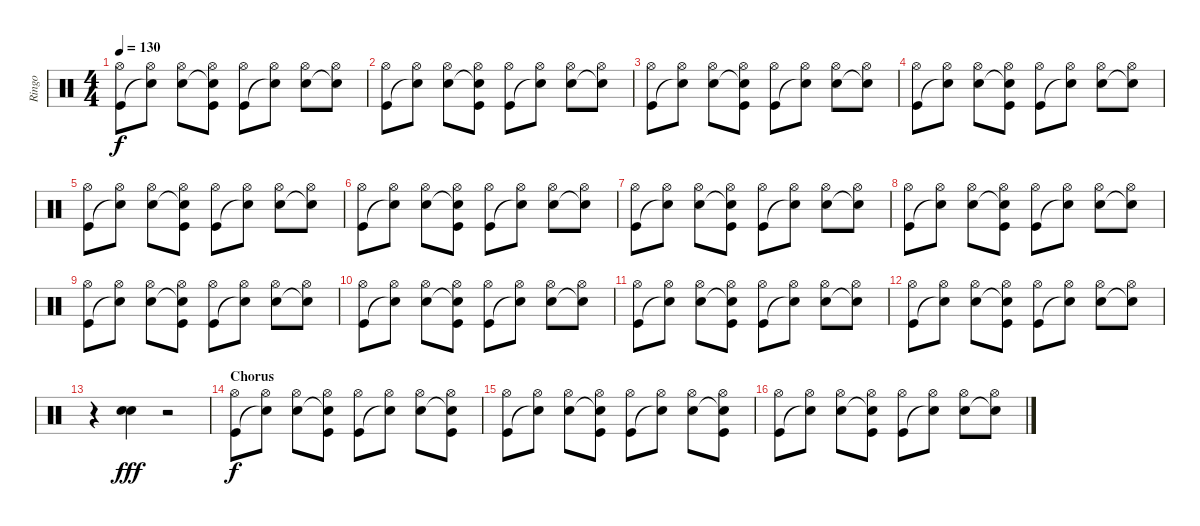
\track ("Ringo" "Ringo") {instrument percussion}
\staff {score}
\articulation defaults
\ts (4 4)
\tempo 130
\clef neutral
\ks c
("Hi-Hat (open)" "Kick (hit)").8{dy f} ("Hi-Hat (open)" "Snare (hit)"{t}).8 ("Hi-Hat (open)" "Snare (hit) 2").8 ("Hi-Hat (open)" "Snare (hit)"{t} "Kick (hit)").8 ("Hi-Hat (open)" "Kick (hit)").8 ("Hi-Hat (open)" "Snare (hit)"{t}).8 ("Hi-Hat (open)" "Snare (hit) 2").8 ("Hi-Hat (open)" "Snare (hit)"{t}).8 |
("Hi-Hat (open)" "Kick (hit)").8 ("Hi-Hat (open)" "Snare (hit)"{t}).8 ("Hi-Hat (open)" "Snare (hit) 2").8 ("Hi-Hat (open)" "Snare (hit)"{t} "Kick (hit)").8 ("Hi-Hat (open)" "Kick (hit)").8 ("Hi-Hat (open)" "Snare (hit)"{t}).8 ("Hi-Hat (open)" "Snare (hit) 2").8 ("Hi-Hat (open)" "Snare (hit)"{t}).8 |
("Hi-Hat (open)" "Kick (hit)").8 ("Hi-Hat (open)" "Snare (hit)"{t}).8 ("Hi-Hat (open)" "Snare (hit) 2").8 ("Hi-Hat (open)" "Snare (hit)"{t} "Kick (hit)").8 ("Hi-Hat (open)" "Kick (hit)").8 ("Hi-Hat (open)" "Snare (hit)"{t}).8 ("Hi-Hat (open)" "Snare (hit) 2").8 ("Hi-Hat (open)" "Snare (hit)"{t}).8 |
("Hi-Hat (open)" "Kick (hit)").8 ("Hi-Hat (open)" "Snare (hit)"{t}).8 ("Hi-Hat (open)" "Snare (hit) 2").8 ("Hi-Hat (open)" "Snare (hit)"{t} "Kick (hit)").8 ("Hi-Hat (open)" "Kick (hit)").8 ("Hi-Hat (open)" "Snare (hit)"{t}).8 ("Hi-Hat (open)" "Snare (hit) 2").8 ("Hi-Hat (open)" "Snare (hit)"{t}).8 |
("Hi-Hat (open)" "Kick (hit)").8 ("Hi-Hat (open)" "Snare (hit)"{t}).8 ("Hi-Hat (open)" "Snare (hit) 2").8 ("Hi-Hat (open)" "Snare (hit)"{t} "Kick (hit)").8 ("Hi-Hat (open)" "Kick (hit)").8 ("Hi-Hat (open)" "Snare (hit)"{t}).8 ("Hi-Hat (open)" "Snare (hit) 2").8 ("Hi-Hat (open)" "Snare (hit)"{t}).8 |
("Hi-Hat (open)" "Kick (hit)").8 ("Hi-Hat (open)" "Snare (hit)"{t}).8 ("Hi-Hat (open)" "Snare (hit) 2").8 ("Hi-Hat (open)" "Snare (hit)"{t} "Kick (hit)").8 ("Hi-Hat (open)" "Kick (hit)").8 ("Hi-Hat (open)" "Snare (hit)"{t}).8 ("Hi-Hat (open)" "Snare (hit) 2").8 ("Hi-Hat (open)" "Snare (hit)"{t}).8 |
("Hi-Hat (open)" "Kick (hit)").8 ("Hi-Hat (open)" "Snare (hit)"{t}).8 ("Hi-Hat (open)" "Snare (hit) 2").8 ("Hi-Hat (open)" "Snare (hit)"{t} "Kick (hit)").8 ("Hi-Hat (open)" "Kick (hit)").8 ("Hi-Hat (open)" "Snare (hit)"{t}).8 ("Hi-Hat (open)" "Snare (hit) 2").8 ("Hi-Hat (open)" "Snare (hit)"{t}).8 |
("Hi-Hat (open)" "Kick (hit)").8 ("Hi-Hat (open)" "Snare (hit)"{t}).8 ("Hi-Hat (open)" "Snare (hit) 2").8 ("Hi-Hat (open)" "Snare (hit)"{t} "Kick (hit)").8 ("Hi-Hat (open)" "Kick (hit)").8 ("Hi-Hat (open)" "Snare (hit)"{t}).8 ("Hi-Hat (open)" "Snare (hit) 2").8 ("Hi-Hat (open)" "Snare (hit)"{t}).8 |
("Hi-Hat (open)" "Kick (hit)").8 ("Hi-Hat (open)" "Snare (hit)"{t}).8 ("Hi-Hat (open)" "Snare (hit) 2").8 ("Hi-Hat (open)" "Snare (hit)"{t} "Kick (hit)").8 ("Hi-Hat (open)" "Kick (hit)").8 ("Hi-Hat (open)" "Snare (hit)"{t}).8 ("Hi-Hat (open)" "Snare (hit) 2").8 ("Hi-Hat (open)" "Snare (hit)"{t}).8 |
("Hi-Hat (open)" "Kick (hit)").8 ("Hi-Hat (open)" "Snare (hit)"{t}).8 ("Hi-Hat (open)" "Snare (hit) 2").8 ("Hi-Hat (open)" "Snare (hit)"{t} "Kick (hit)").8 ("Hi-Hat (open)" "Kick (hit)").8 ("Hi-Hat (open)" "Snare (hit)"{t}).8 ("Hi-Hat (open)" "Snare (hit) 2").8 ("Hi-Hat (open)" "Snare (hit)"{t}).8 |
("Hi-Hat (open)" "Kick (hit)").8 ("Hi-Hat (open)" "Snare (hit)"{t}).8 ("Hi-Hat (open)" "Snare (hit) 2").8 ("Hi-Hat (open)" "Snare (hit)"{t} "Kick (hit)").8 ("Hi-Hat (open)" "Kick (hit)").8 ("Hi-Hat (open)" "Snare (hit)"{t}).8 ("Hi-Hat (open)" "Snare (hit) 2").8 ("Hi-Hat (open)" "Snare (hit)"{t}).8 |
("Hi-Hat (open)" "Kick (hit)").8 ("Hi-Hat (open)" "Snare (hit)"{t}).8 ("Hi-Hat (open)" "Snare (hit) 2").8 ("Hi-Hat (open)" "Snare (hit)"{t} "Kick (hit)").8 ("Hi-Hat (open)" "Kick (hit)").8 ("Hi-Hat (open)" "Snare (hit)"{t}).8 ("Hi-Hat (open)" "Snare (hit) 2").8 ("Hi-Hat (open)" "Snare (hit)"{t}).8 |
r.4 ("Electric Snare (hit)" "Snare (hit) 2").4{dy fff} r.2 |
\section ("" "Chorus")
("Hi-Hat (open)" "Kick (hit)").8{dy f} ("Hi-Hat (open)" "Snare (hit)"{t}).8 ("Hi-Hat (open)" "Snare (hit) 2").8 ("Hi-Hat (open)" "Snare (hit)"{t} "Kick (hit)").8 ("Hi-Hat (open)" "Kick (hit)").8 ("Hi-Hat (open)" "Snare (hit)"{t}).8 ("Hi-Hat (open)" "Snare (hit) 2").8 ("Hi-Hat (open)" "Snare (hit)"{t} "Kick (hit)").8 |
("Hi-Hat (open)" "Kick (hit)").8 ("Hi-Hat (open)" "Snare (hit)"{t}).8 ("Hi-Hat (open)" "Snare (hit) 2").8 ("Hi-Hat (open)" "Snare (hit)"{t} "Kick (hit)").8 ("Hi-Hat (open)" "Kick (hit)").8 ("Hi-Hat (open)" "Snare (hit)"{t}).8 ("Hi-Hat (open)" "Snare (hit) 2").8 ("Hi-Hat (open)" "Snare (hit)"{t} "Kick (hit)").8 |
("Hi-Hat (open)" "Kick (hit)").8 ("Hi-Hat (open)" "Snare (hit)"{t}).8 ("Hi-Hat (open)" "Snare (hit) 2").8 ("Hi-Hat (open)" "Snare (hit)"{t} "Kick (hit)").8 ("Hi-Hat (open)" "Kick (hit)").8 ("Hi-Hat (open)" "Snare (hit)"{t}).8 ("Hi-Hat (open)" "Snare (hit) 2").8 ("Hi-Hat (open)" "Snare (hit)"{t}).8
